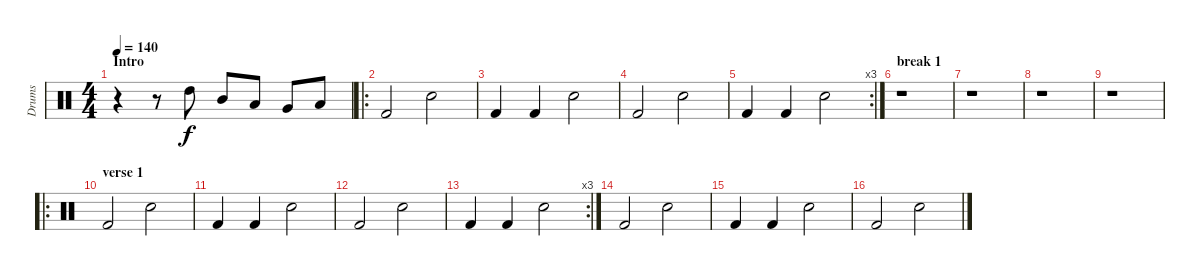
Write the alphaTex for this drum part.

\track ("Drums" "Drums") {instrument percussion}
\staff {score}
\articulation defaults
\ts (4 4)
\section ("" "Intro")
\tempo 140
\clef neutral
\ks c
r.4{dy f} r.8 "High Tom (hit)".8 "Mid Tom (hit)".8 "Low Tom (hit)".8 "Very Low Tom (hit)".8 "Low Floor Tom (hit)".8 |
\ro "Kick (hit) 2".2 "Snare (hit) 2".2
|
"Kick (hit) 2".4 "Kick (hit) 2".4 "Snare (hit) 2".2 |
"Kick (hit) 2".2 "Snare (hit) 2".2 |
\rc 3 "Kick (hit) 2".4 "Kick (hit) 2".4 "Snare (hit) 2".2
|
\section ("" "break 1")
r.1 |
r.1 |
r.1 |
r.1 |
\ro
\section ("" "verse 1")
"Kick (hit) 2".2 "Snare (hit) 2".2 |
"Kick (hit) 2".4 "Kick (hit) 2".4 "Snare (hit) 2".2 |
"Kick (hit) 2".2 "Snare (hit) 2".2 |
\rc 3 "Kick (hit) 2".4 "Kick (hit) 2".4 "Snare (hit) 2".2
|
"Kick (hit) 2".2 "Snare (hit) 2".2 |
"Kick (hit) 2".4 "Kick (hit) 2".4 "Snare (hit) 2".2 |
"Kick (hit) 2".2 "Snare (hit) 2".2
